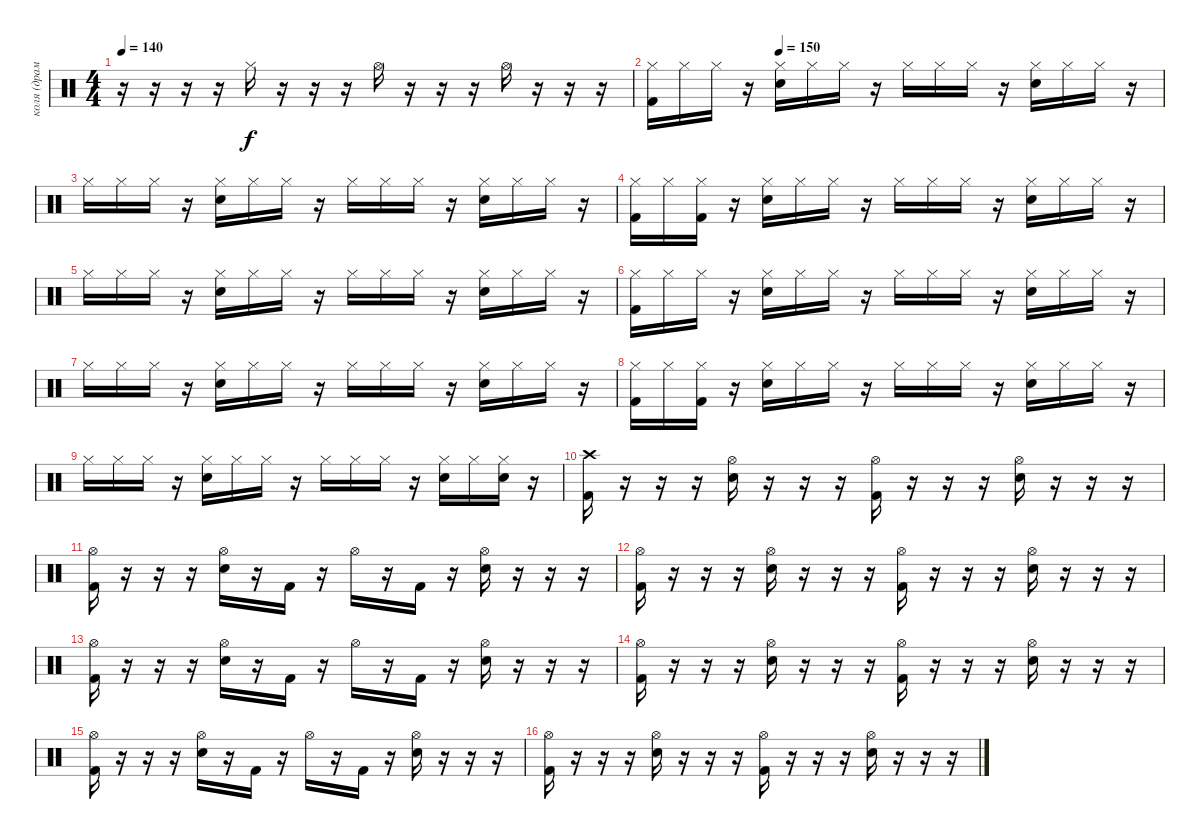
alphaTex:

\track ("коля (драммы)" "коля (драм") {instrument percussion}
\staff {score}
\articulation defaults
\ts (4 4)
\tempo 140
\clef neutral
\ks c
r.16{dy f} r.16 r.16 r.16 "Hi-Hat (closed)".16 r.16 r.16 r.16 "Hi-Hat (open)".16 r.16 r.16 r.16 "Hi-Hat (open)".16 r.16 r.16 r.16 |
\tempo (150 0.25)
("Kick (hit) 2" "Hi-Hat (closed)").16 "Hi-Hat (closed)".16 "Hi-Hat (closed)".16 r.16 ("Snare (hit) 2" "Hi-Hat (closed)").16 "Hi-Hat (closed)".16 "Hi-Hat (closed)".16 r.16 "Hi-Hat (closed)".16 "Hi-Hat (closed)".16 "Hi-Hat (closed)".16 r.16 ("Snare (hit) 2" "Hi-Hat (closed)").16 "Hi-Hat (closed)".16 "Hi-Hat (closed)".16 r.16 |
"Hi-Hat (closed)".16 "Hi-Hat (closed)".16 "Hi-Hat (closed)".16 r.16 ("Snare (hit) 2" "Hi-Hat (closed)").16 "Hi-Hat (closed)".16 "Hi-Hat (closed)".16 r.16 "Hi-Hat (closed)".16 "Hi-Hat (closed)".16 "Hi-Hat (closed)".16 r.16 ("Snare (hit) 2" "Hi-Hat (closed)").16 "Hi-Hat (closed)".16 "Hi-Hat (closed)".16 r.16 |
("Kick (hit) 2" "Hi-Hat (closed)").16 "Hi-Hat (closed)".16 ("Kick (hit) 2" "Hi-Hat (closed)").16 r.16 ("Snare (hit) 2" "Hi-Hat (closed)").16 "Hi-Hat (closed)".16 "Hi-Hat (closed)".16 r.16 "Hi-Hat (closed)".16 "Hi-Hat (closed)".16 "Hi-Hat (closed)".16 r.16 ("Snare (hit) 2" "Hi-Hat (closed)").16 "Hi-Hat (closed)".16 "Hi-Hat (closed)".16 r.16 |
"Hi-Hat (closed)".16 "Hi-Hat (closed)".16 "Hi-Hat (closed)".16 r.16 ("Snare (hit) 2" "Hi-Hat (closed)").16 "Hi-Hat (closed)".16 "Hi-Hat (closed)".16 r.16 "Hi-Hat (closed)".16 "Hi-Hat (closed)".16 "Hi-Hat (closed)".16 r.16 ("Snare (hit) 2" "Hi-Hat (closed)").16 "Hi-Hat (closed)".16 "Hi-Hat (closed)".16 r.16 |
("Kick (hit) 2" "Hi-Hat (closed)").16 "Hi-Hat (closed)".16 "Hi-Hat (closed)".16 r.16 ("Snare (hit) 2" "Hi-Hat (closed)").16 "Hi-Hat (closed)".16 "Hi-Hat (closed)".16 r.16 "Hi-Hat (closed)".16 "Hi-Hat (closed)".16 "Hi-Hat (closed)".16 r.16 ("Snare (hit) 2" "Hi-Hat (closed)").16 "Hi-Hat (closed)".16 "Hi-Hat (closed)".16 r.16 |
"Hi-Hat (closed)".16 "Hi-Hat (closed)".16 "Hi-Hat (closed)".16 r.16 ("Snare (hit) 2" "Hi-Hat (closed)").16 "Hi-Hat (closed)".16 "Hi-Hat (closed)".16 r.16 "Hi-Hat (closed)".16 "Hi-Hat (closed)".16 "Hi-Hat (closed)".16 r.16 ("Snare (hit) 2" "Hi-Hat (closed)").16 "Hi-Hat (closed)".16 "Hi-Hat (closed)".16 r.16 |
("Kick (hit) 2" "Hi-Hat (closed)").16 "Hi-Hat (closed)".16 ("Kick (hit) 2" "Hi-Hat (closed)").16 r.16 ("Snare (hit) 2" "Hi-Hat (closed)").16 "Hi-Hat (closed)".16 "Hi-Hat (closed)".16 r.16 "Hi-Hat (closed)".16 "Hi-Hat (closed)".16 "Hi-Hat (closed)".16 r.16 ("Snare (hit) 2" "Hi-Hat (closed)").16 "Hi-Hat (closed)".16 "Hi-Hat (closed)".16 r.16 |
"Hi-Hat (closed)".16 "Hi-Hat (closed)".16 "Hi-Hat (closed)".16 r.16 ("Snare (hit) 2" "Hi-Hat (closed)").16 "Hi-Hat (closed)".16 "Hi-Hat (closed)".16 r.16 "Hi-Hat (closed)".16 "Hi-Hat (closed)".16 "Hi-Hat (closed)".16 r.16 ("Snare (hit) 2" "Hi-Hat (closed)").16 "Hi-Hat (closed)".16 ("Snare (hit) 2" "Hi-Hat (closed)").16 r.16 |
("Kick (hit) 2" "Crash high (hit)").16 r.16 r.16 r.16 ("Snare (hit) 2" "Hi-Hat (open)").16 r.16 r.16 r.16 ("Kick (hit) 2" "Hi-Hat (open)").16 r.16 r.16 r.16 ("Snare (hit) 2" "Hi-Hat (open)").16 r.16 r.16 r.16 |
("Kick (hit) 2" "Hi-Hat (open)").16 r.16 r.16 r.16 ("Snare (hit) 2" "Hi-Hat (open)").16 r.16 "Kick (hit) 2".16 r.16 "Hi-Hat (open)".16 r.16 "Kick (hit) 2".16 r.16 ("Snare (hit) 2" "Hi-Hat (open)").16 r.16 r.16 r.16 |
("Kick (hit) 2" "Hi-Hat (open)").16 r.16 r.16 r.16 ("Snare (hit) 2" "Hi-Hat (open)").16 r.16 r.16 r.16 ("Kick (hit) 2" "Hi-Hat (open)").16 r.16 r.16 r.16 ("Snare (hit) 2" "Hi-Hat (open)").16 r.16 r.16 r.16 |
("Kick (hit) 2" "Hi-Hat (open)").16 r.16 r.16 r.16 ("Snare (hit) 2" "Hi-Hat (open)").16 r.16 "Kick (hit) 2".16 r.16 "Hi-Hat (open)".16 r.16 "Kick (hit) 2".16 r.16 ("Snare (hit) 2" "Hi-Hat (open)").16 r.16 r.16 r.16 |
("Kick (hit) 2" "Hi-Hat (open)").16 r.16 r.16 r.16 ("Snare (hit) 2" "Hi-Hat (open)").16 r.16 r.16 r.16 ("Kick (hit) 2" "Hi-Hat (open)").16 r.16 r.16 r.16 ("Snare (hit) 2" "Hi-Hat (open)").16 r.16 r.16 r.16 |
("Kick (hit) 2" "Hi-Hat (open)").16 r.16 r.16 r.16 ("Snare (hit) 2" "Hi-Hat (open)").16 r.16 "Kick (hit) 2".16 r.16 "Hi-Hat (open)".16 r.16 "Kick (hit) 2".16 r.16 ("Snare (hit) 2" "Hi-Hat (open)").16 r.16 r.16 r.16 |
("Kick (hit) 2" "Hi-Hat (open)").16 r.16 r.16 r.16 ("Snare (hit) 2" "Hi-Hat (open)").16 r.16 r.16 r.16 ("Kick (hit) 2" "Hi-Hat (open)").16 r.16 r.16 r.16 ("Snare (hit) 2" "Hi-Hat (open)").16 r.16 r.16 r.16
